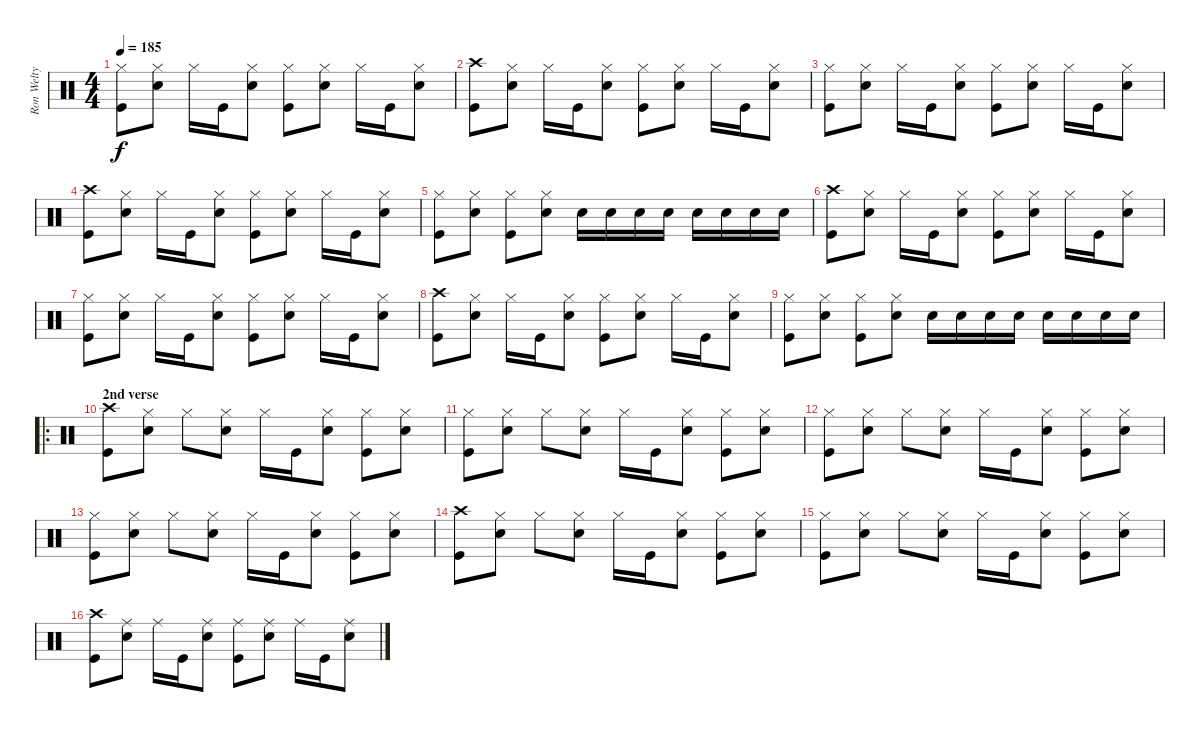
\track ("Ron Welty" "Ron Welty") {instrument percussion}
\staff {score}
\articulation defaults
\ts (4 4)
\tempo 185
\clef neutral
\ks c
("Hi-Hat (closed)" "Kick (hit)").8{dy f} ("Hi-Hat (closed)" "Electric Snare (hit)").8 "Hi-Hat (closed)".16 "Kick (hit)".16 ("Hi-Hat (closed)" "Electric Snare (hit)").8 ("Hi-Hat (closed)" "Kick (hit)").8 ("Hi-Hat (closed)" "Electric Snare (hit)").8 "Hi-Hat (closed)".16 "Kick (hit)".16 ("Hi-Hat (closed)" "Electric Snare (hit)").8 |
("Crash high (hit)" "Kick (hit)").8 ("Hi-Hat (closed)" "Electric Snare (hit)").8 "Hi-Hat (closed)".16 "Kick (hit)".16 ("Hi-Hat (closed)" "Electric Snare (hit)").8 ("Hi-Hat (closed)" "Kick (hit)").8 ("Hi-Hat (closed)" "Electric Snare (hit)").8 "Hi-Hat (closed)".16 "Kick (hit)".16 ("Hi-Hat (closed)" "Electric Snare (hit)").8 |
("Hi-Hat (closed)" "Kick (hit)").8 ("Hi-Hat (closed)" "Electric Snare (hit)").8 "Hi-Hat (closed)".16 "Kick (hit)".16 ("Hi-Hat (closed)" "Electric Snare (hit)").8 ("Hi-Hat (closed)" "Kick (hit)").8 ("Hi-Hat (closed)" "Electric Snare (hit)").8 "Hi-Hat (closed)".16 "Kick (hit)".16 ("Hi-Hat (closed)" "Electric Snare (hit)").8 |
("Crash high (hit)" "Kick (hit)").8 ("Hi-Hat (closed)" "Electric Snare (hit)").8 "Hi-Hat (closed)".16 "Kick (hit)".16 ("Hi-Hat (closed)" "Electric Snare (hit)").8 ("Hi-Hat (closed)" "Kick (hit)").8 ("Hi-Hat (closed)" "Electric Snare (hit)").8 "Hi-Hat (closed)".16 "Kick (hit)".16 ("Hi-Hat (closed)" "Electric Snare (hit)").8 |
("Hi-Hat (closed)" "Kick (hit)").8 ("Hi-Hat (closed)" "Electric Snare (hit)").8 ("Hi-Hat (closed)" "Kick (hit)").8 ("Hi-Hat (closed)" "Electric Snare (hit)").8 "Electric Snare (hit)".16 "Electric Snare (hit)".16 "Electric Snare (hit)".16 "Electric Snare (hit)".16 "Electric Snare (hit)".16 "Electric Snare (hit)".16 "Electric Snare (hit)".16 "Electric Snare (hit)".16 |
("Crash high (hit)" "Kick (hit)").8 ("Hi-Hat (closed)" "Electric Snare (hit)").8 "Hi-Hat (closed)".16 "Kick (hit)".16 ("Hi-Hat (closed)" "Electric Snare (hit)").8 ("Hi-Hat (closed)" "Kick (hit)").8 ("Hi-Hat (closed)" "Electric Snare (hit)").8 "Hi-Hat (closed)".16 "Kick (hit)".16 ("Hi-Hat (closed)" "Electric Snare (hit)").8 |
("Hi-Hat (closed)" "Kick (hit)").8 ("Hi-Hat (closed)" "Electric Snare (hit)").8 "Hi-Hat (closed)".16 "Kick (hit)".16 ("Hi-Hat (closed)" "Electric Snare (hit)").8 ("Hi-Hat (closed)" "Kick (hit)").8 ("Hi-Hat (closed)" "Electric Snare (hit)").8 "Hi-Hat (closed)".16 "Kick (hit)".16 ("Hi-Hat (closed)" "Electric Snare (hit)").8 |
("Crash high (hit)" "Kick (hit)").8 ("Hi-Hat (closed)" "Electric Snare (hit)").8 "Hi-Hat (closed)".16 "Kick (hit)".16 ("Hi-Hat (closed)" "Electric Snare (hit)").8 ("Hi-Hat (closed)" "Kick (hit)").8 ("Hi-Hat (closed)" "Electric Snare (hit)").8 "Hi-Hat (closed)".16 "Kick (hit)".16 ("Hi-Hat (closed)" "Electric Snare (hit)").8 |
("Hi-Hat (closed)" "Kick (hit)").8 ("Hi-Hat (closed)" "Electric Snare (hit)").8 ("Hi-Hat (closed)" "Kick (hit)").8 ("Hi-Hat (closed)" "Electric Snare (hit)").8 "Electric Snare (hit)".16 "Electric Snare (hit)".16 "Electric Snare (hit)".16 "Electric Snare (hit)".16 "Electric Snare (hit)".16 "Electric Snare (hit)".16 "Electric Snare (hit)".16 "Electric Snare (hit)".16 |
\ro
\section ("" "2nd verse")
("Crash high (hit)" "Kick (hit)").8 ("Hi-Hat (closed)" "Electric Snare (hit)").8 "Hi-Hat (closed)".8 ("Hi-Hat (closed)" "Electric Snare (hit)").8 "Hi-Hat (closed)".16 "Kick (hit)".16 ("Hi-Hat (closed)" "Electric Snare (hit)").8 ("Hi-Hat (closed)" "Kick (hit)").8 ("Hi-Hat (closed)" "Electric Snare (hit)").8 |
("Hi-Hat (closed)" "Kick (hit)").8 ("Hi-Hat (closed)" "Electric Snare (hit)").8 "Hi-Hat (closed)".8 ("Hi-Hat (closed)" "Electric Snare (hit)").8 "Hi-Hat (closed)".16 "Kick (hit)".16 ("Hi-Hat (closed)" "Electric Snare (hit)").8 ("Hi-Hat (closed)" "Kick (hit)").8 ("Hi-Hat (closed)" "Electric Snare (hit)").8 |
("Hi-Hat (closed)" "Kick (hit)").8 ("Hi-Hat (closed)" "Electric Snare (hit)").8 "Hi-Hat (closed)".8 ("Hi-Hat (closed)" "Electric Snare (hit)").8 "Hi-Hat (closed)".16 "Kick (hit)".16 ("Hi-Hat (closed)" "Electric Snare (hit)").8 ("Hi-Hat (closed)" "Kick (hit)").8 ("Hi-Hat (closed)" "Electric Snare (hit)").8 |
("Hi-Hat (closed)" "Kick (hit)").8 ("Hi-Hat (closed)" "Electric Snare (hit)").8 "Hi-Hat (closed)".8 ("Hi-Hat (closed)" "Electric Snare (hit)").8 "Hi-Hat (closed)".16 "Kick (hit)".16 ("Hi-Hat (closed)" "Electric Snare (hit)").8 ("Hi-Hat (closed)" "Kick (hit)").8 ("Hi-Hat (closed)" "Electric Snare (hit)").8 |
("Crash high (hit)" "Kick (hit)").8 ("Hi-Hat (closed)" "Electric Snare (hit)").8 "Hi-Hat (closed)".8 ("Hi-Hat (closed)" "Electric Snare (hit)").8 "Hi-Hat (closed)".16 "Kick (hit)".16 ("Hi-Hat (closed)" "Electric Snare (hit)").8 ("Hi-Hat (closed)" "Kick (hit)").8 ("Hi-Hat (closed)" "Electric Snare (hit)").8 |
("Hi-Hat (closed)" "Kick (hit)").8 ("Hi-Hat (closed)" "Electric Snare (hit)").8 "Hi-Hat (closed)".8 ("Hi-Hat (closed)" "Electric Snare (hit)").8 "Hi-Hat (closed)".16 "Kick (hit)".16 ("Hi-Hat (closed)" "Electric Snare (hit)").8 ("Hi-Hat (closed)" "Kick (hit)").8 ("Hi-Hat (closed)" "Electric Snare (hit)").8 |
("Crash high (hit)" "Kick (hit)").8 ("Ride (middle)" "Electric Snare (hit)").8 "Ride (middle)".16 "Kick (hit)".16 ("Ride (middle)" "Electric Snare (hit)").8 ("Ride (middle)" "Kick (hit)").8 ("Ride (middle)" "Electric Snare (hit)").8 "Ride (middle)".16 "Kick (hit)".16 ("Ride (middle)" "Electric Snare (hit)").8
